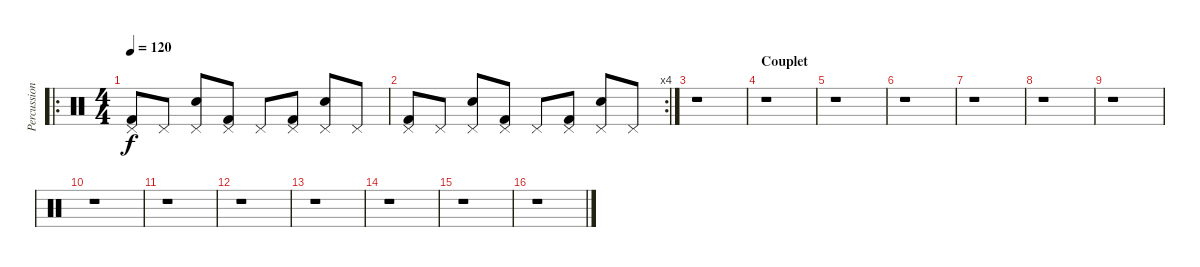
\track ("Percussions" "Percussion") {instrument percussion}
\staff {score}
\articulation defaults
\ro
\ts (4 4)
\tempo 120
\clef neutral
\ks c
("Pedal Hi-Hat (hit)" "Kick (hit) 2").8{dy f} "Pedal Hi-Hat (hit)".8 ("Pedal Hi-Hat (hit)" "Electric Snare (hit)").8 ("Pedal Hi-Hat (hit)" "Kick (hit) 2").8 "Pedal Hi-Hat (hit)".8 ("Pedal Hi-Hat (hit)" "Kick (hit) 2").8 ("Pedal Hi-Hat (hit)" "Electric Snare (hit)").8 "Pedal Hi-Hat (hit)".8 |
\rc 4
("Pedal Hi-Hat (hit)" "Kick (hit) 2").8 "Pedal Hi-Hat (hit)".8 ("Pedal Hi-Hat (hit)" "Electric Snare (hit)").8 ("Pedal Hi-Hat (hit)" "Kick (hit) 2").8 "Pedal Hi-Hat (hit)".8 ("Pedal Hi-Hat (hit)" "Kick (hit) 2").8 ("Pedal Hi-Hat (hit)" "Electric Snare (hit)").8 "Pedal Hi-Hat (hit)".8 |
r.1 |
\section ("" "Couplet ")
r.1 |
r.1 |
r.1 |
r.1 |
r.1 |
r.1 |
r.1 |
r.1 |
r.1 |
r.1 |
r.1 |
r.1 |
r.1
